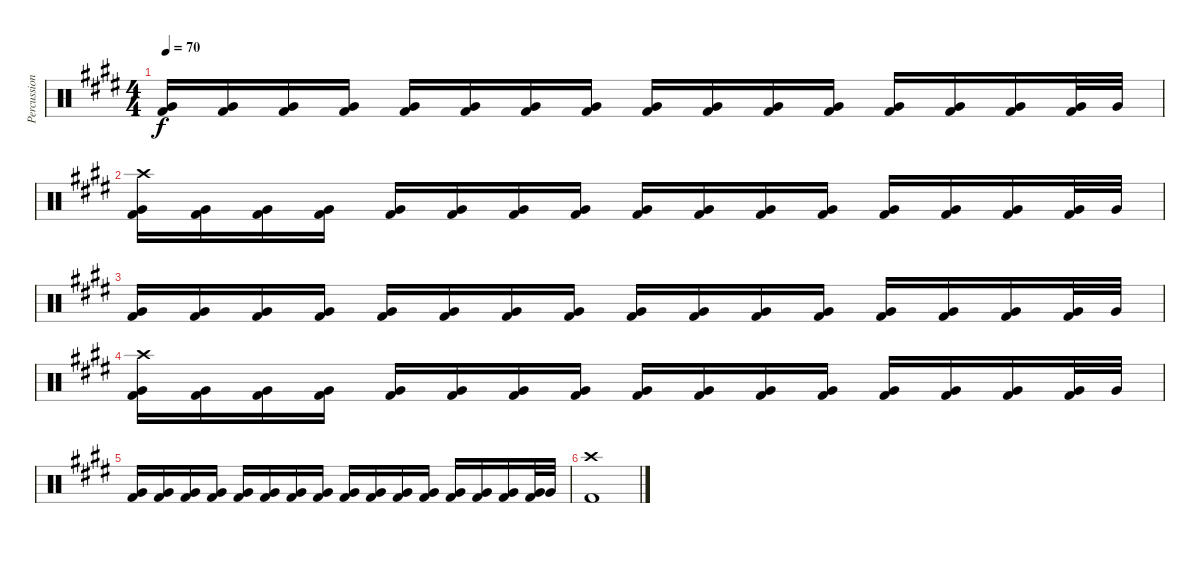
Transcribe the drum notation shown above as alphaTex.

\track ("Percussion" "Percussion") {instrument percussion}
\staff {score}
\articulation defaults
\ts (4 4)
\tempo 70
\clef neutral
\ks e
("Very Low Tom (hit)" "Kick (hit) 2").16{dy f} ("Very Low Tom (hit)" "Kick (hit) 2").16 ("Very Low Tom (hit)" "Kick (hit) 2").16 ("Very Low Tom (hit)" "Kick (hit) 2").16 ("Very Low Tom (hit)" "Kick (hit) 2").16 ("Very Low Tom (hit)" "Kick (hit) 2").16 ("Very Low Tom (hit)" "Kick (hit) 2").16 ("Very Low Tom (hit)" "Kick (hit) 2").16 ("Very Low Tom (hit)" "Kick (hit) 2").16 ("Very Low Tom (hit)" "Kick (hit) 2").16 ("Very Low Tom (hit)" "Kick (hit) 2").16 ("Very Low Tom (hit)" "Kick (hit) 2").16 ("Very Low Tom (hit)" "Kick (hit) 2").16 ("Very Low Tom (hit)" "Kick (hit) 2").16 ("Very Low Tom (hit)" "Kick (hit) 2").16 ("Very Low Tom (hit)" "Kick (hit) 2").32 "Very Low Tom (hit)".32 |
("Crash high (hit)" "Very Low Tom (hit)" "Kick (hit) 2").16 ("Very Low Tom (hit)" "Kick (hit) 2").16 ("Very Low Tom (hit)" "Kick (hit) 2").16 ("Very Low Tom (hit)" "Kick (hit) 2").16 ("Very Low Tom (hit)" "Kick (hit) 2").16 ("Very Low Tom (hit)" "Kick (hit) 2").16 ("Very Low Tom (hit)" "Kick (hit) 2").16 ("Very Low Tom (hit)" "Kick (hit) 2").16 ("Very Low Tom (hit)" "Kick (hit) 2").16 ("Very Low Tom (hit)" "Kick (hit) 2").16 ("Very Low Tom (hit)" "Kick (hit) 2").16 ("Very Low Tom (hit)" "Kick (hit) 2").16 ("Very Low Tom (hit)" "Kick (hit) 2").16 ("Very Low Tom (hit)" "Kick (hit) 2").16 ("Very Low Tom (hit)" "Kick (hit) 2").16 ("Very Low Tom (hit)" "Kick (hit) 2").32 "Very Low Tom (hit)".32 |
("Very Low Tom (hit)" "Kick (hit) 2").16 ("Very Low Tom (hit)" "Kick (hit) 2").16 ("Very Low Tom (hit)" "Kick (hit) 2").16 ("Very Low Tom (hit)" "Kick (hit) 2").16 ("Very Low Tom (hit)" "Kick (hit) 2").16 ("Very Low Tom (hit)" "Kick (hit) 2").16 ("Very Low Tom (hit)" "Kick (hit) 2").16 ("Very Low Tom (hit)" "Kick (hit) 2").16 ("Very Low Tom (hit)" "Kick (hit) 2").16 ("Very Low Tom (hit)" "Kick (hit) 2").16 ("Very Low Tom (hit)" "Kick (hit) 2").16 ("Very Low Tom (hit)" "Kick (hit) 2").16 ("Very Low Tom (hit)" "Kick (hit) 2").16 ("Very Low Tom (hit)" "Kick (hit) 2").16 ("Very Low Tom (hit)" "Kick (hit) 2").16 ("Very Low Tom (hit)" "Kick (hit) 2").32 "Very Low Tom (hit)".32 |
("Crash high (hit)" "Very Low Tom (hit)" "Kick (hit) 2").16 ("Very Low Tom (hit)" "Kick (hit) 2").16 ("Very Low Tom (hit)" "Kick (hit) 2").16 ("Very Low Tom (hit)" "Kick (hit) 2").16 ("Very Low Tom (hit)" "Kick (hit) 2").16 ("Very Low Tom (hit)" "Kick (hit) 2").16 ("Very Low Tom (hit)" "Kick (hit) 2").16 ("Very Low Tom (hit)" "Kick (hit) 2").16 ("Very Low Tom (hit)" "Kick (hit) 2").16 ("Very Low Tom (hit)" "Kick (hit) 2").16 ("Very Low Tom (hit)" "Kick (hit) 2").16 ("Very Low Tom (hit)" "Kick (hit) 2").16 ("Very Low Tom (hit)" "Kick (hit) 2").16 ("Very Low Tom (hit)" "Kick (hit) 2").16 ("Very Low Tom (hit)" "Kick (hit) 2").16 ("Very Low Tom (hit)" "Kick (hit) 2").32 "Very Low Tom (hit)".32 |
("Very Low Tom (hit)" "Kick (hit) 2").16 ("Very Low Tom (hit)" "Kick (hit) 2").16 ("Very Low Tom (hit)" "Kick (hit) 2").16 ("Very Low Tom (hit)" "Kick (hit) 2").16 ("Very Low Tom (hit)" "Kick (hit) 2").16 ("Very Low Tom (hit)" "Kick (hit) 2").16 ("Very Low Tom (hit)" "Kick (hit) 2").16 ("Very Low Tom (hit)" "Kick (hit) 2").16 ("Very Low Tom (hit)" "Kick (hit) 2").16 ("Very Low Tom (hit)" "Kick (hit) 2").16 ("Very Low Tom (hit)" "Kick (hit) 2").16 ("Very Low Tom (hit)" "Kick (hit) 2").16 ("Very Low Tom (hit)" "Kick (hit) 2").16 ("Very Low Tom (hit)" "Kick (hit) 2").16 ("Very Low Tom (hit)" "Kick (hit) 2").16 ("Very Low Tom (hit)" "Kick (hit) 2").32 "Very Low Tom (hit)".32 |
("Crash high (hit)" "Kick (hit) 2").1
